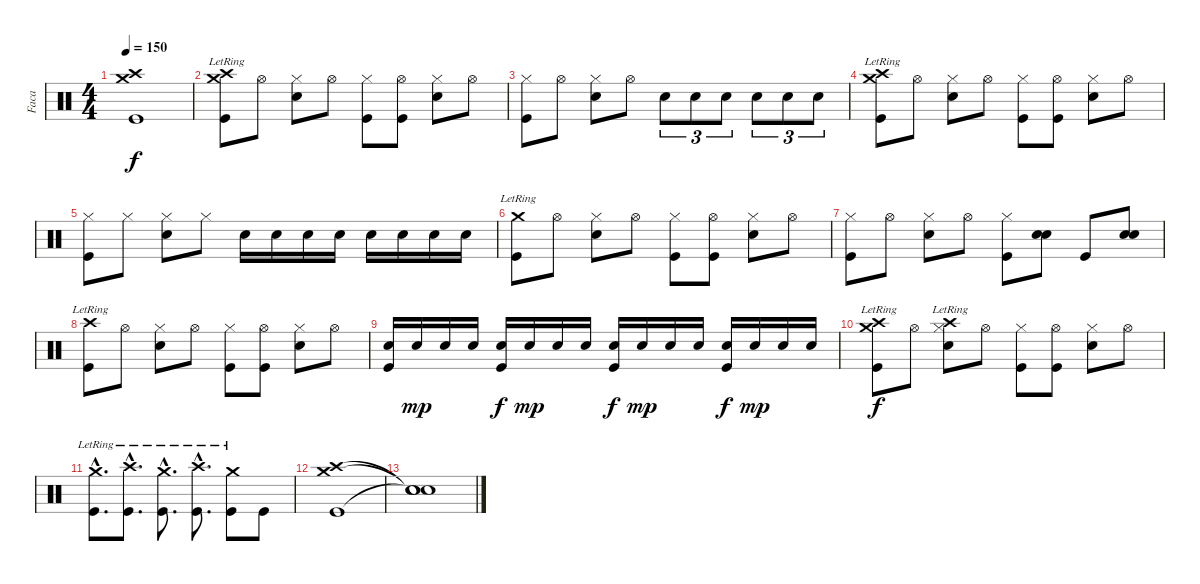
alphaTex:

\track ("Faca" "Faca") {instrument percussion}
\staff {score}
\articulation defaults
\ts (4 4)
\tempo 150
\clef neutral
\ks c
("Crash medium (hit)" "Crash high (hit)" "Kick (hit)").1{dy f} |
("Crash medium (hit)"{lr} "Crash high (hit)"{lr} "Kick (hit)").8 "Hi-Hat (open)".8 ("Hi-Hat (closed)" "Snare (hit) 2").8 "Hi-Hat (open)".8 ("Hi-Hat (closed)" "Kick (hit)").8 ("Hi-Hat (open)" "Kick (hit)").8 ("Hi-Hat (closed)" "Snare (hit) 2").8 "Hi-Hat (open)".8 |
("Hi-Hat (closed)" "Kick (hit)").8 "Hi-Hat (open)".8 ("Hi-Hat (closed)" "Snare (hit) 2").8 "Hi-Hat (open)".8 "Snare (hit) 2".8{tu (3 2)} "Snare (hit) 2".8{tu (3 2)} "Snare (hit) 2".8{tu (3 2)} "Snare (hit) 2".8{tu (3 2)} "Snare (hit) 2".8{tu (3 2)} "Snare (hit) 2".8{tu (3 2)} |
("Crash high (hit)"{lr} "Crash medium (hit)"{lr} "Kick (hit)").8 "Hi-Hat (open)".8 ("Hi-Hat (closed)" "Snare (hit) 2").8 "Hi-Hat (open)".8 ("Hi-Hat (closed)" "Kick (hit)").8 ("Hi-Hat (open)" "Kick (hit)").8 ("Hi-Hat (closed)" "Snare (hit) 2").8 "Hi-Hat (open)".8 |
("Hi-Hat (closed)" "Kick (hit)").8 "Hi-Hat (closed)".8 ("Hi-Hat (closed)" "Snare (hit) 2").8 "Hi-Hat (closed)".8 "Snare (hit) 2".16 "Snare (hit) 2".16 "Snare (hit) 2".16 "Snare (hit) 2".16 "Snare (hit) 2".16 "Snare (hit) 2".16 "Snare (hit) 2".16 "Snare (hit) 2".16 |
("Crash medium (hit)"{lr} "Kick (hit)").8 "Hi-Hat (open)".8 ("Hi-Hat (closed)" "Snare (hit) 2").8 "Hi-Hat (open)".8 ("Hi-Hat (closed)" "Kick (hit)").8 ("Hi-Hat (open)" "Kick (hit)").8 ("Hi-Hat (closed)" "Snare (hit) 2").8 "Hi-Hat (open)".8 |
("Hi-Hat (closed)" "Kick (hit)").8 "Hi-Hat (open)".8 ("Hi-Hat (closed)" "Snare (hit) 2").8 "Hi-Hat (open)".8 ("Hi-Hat (closed)" "Kick (hit)").8 ("Snare (hit) 2" "Snare (hit) 2").8{bd 480} "Kick (hit)".8 ("Snare (hit) 2" "Snare (hit) 2").8{bd 480} |
("Crash high (hit)"{lr} "Kick (hit)").8 "Hi-Hat (open)".8 ("Hi-Hat (closed)" "Snare (hit) 2").8 "Hi-Hat (open)".8 ("Hi-Hat (closed)" "Kick (hit)").8 ("Hi-Hat (open)" "Kick (hit)").8 ("Hi-Hat (closed)" "Snare (hit) 2").8 "Hi-Hat (open)".8 |
("Snare (hit) 2" "Kick (hit)").16 "Snare (hit) 2".16{dy mp} "Snare (hit) 2".16 "Snare (hit) 2".16 ("Snare (hit) 2" "Kick (hit)").16{dy f} "Snare (hit) 2".16{dy mp} "Snare (hit) 2".16 "Snare (hit) 2".16 ("Snare (hit) 2" "Kick (hit)").16{dy f} "Snare (hit) 2".16{dy mp} "Snare (hit) 2".16 "Snare (hit) 2".16 ("Snare (hit) 2" "Kick (hit)").16{dy f} "Snare (hit) 2".16{dy mp} "Snare (hit) 2".16 "Snare (hit) 2".16 |
("Crash medium (hit)"{lr} "Crash high (hit)"{lr} "Kick (hit)").8{dy f} "Hi-Hat (open)".8 ("Crash high (hit)"{lr} "Hi-Hat (closed)" "Snare (hit) 2").8 "Hi-Hat (open)".8 ("Hi-Hat (closed)" "Kick (hit)").8 ("Hi-Hat (open)" "Kick (hit)").8 ("Hi-Hat (closed)" "Snare (hit) 2").8 "Hi-Hat (open)".8 |
("Crash medium (hit)"{hac lr} "Kick (hit)"{hac}).8{d} ("Crash high (hit)"{hac lr} "Kick (hit)"{hac}).8{d} ("Crash medium (hit)"{hac lr} "Kick (hit)"{hac}).8{d} ("Crash high (hit)"{hac lr} "Kick (hit)"{hac}).8{d} ("Crash medium (hit)"{lr} "Kick (hit)").8 "Kick (hit)".8 |
("Crash medium (hit)" "Crash high (hit)" "Kick (hit)").1 |
("Snare (hit)"{t} "Snare (hit)"{t} "Snare (hit)"{t}).1
